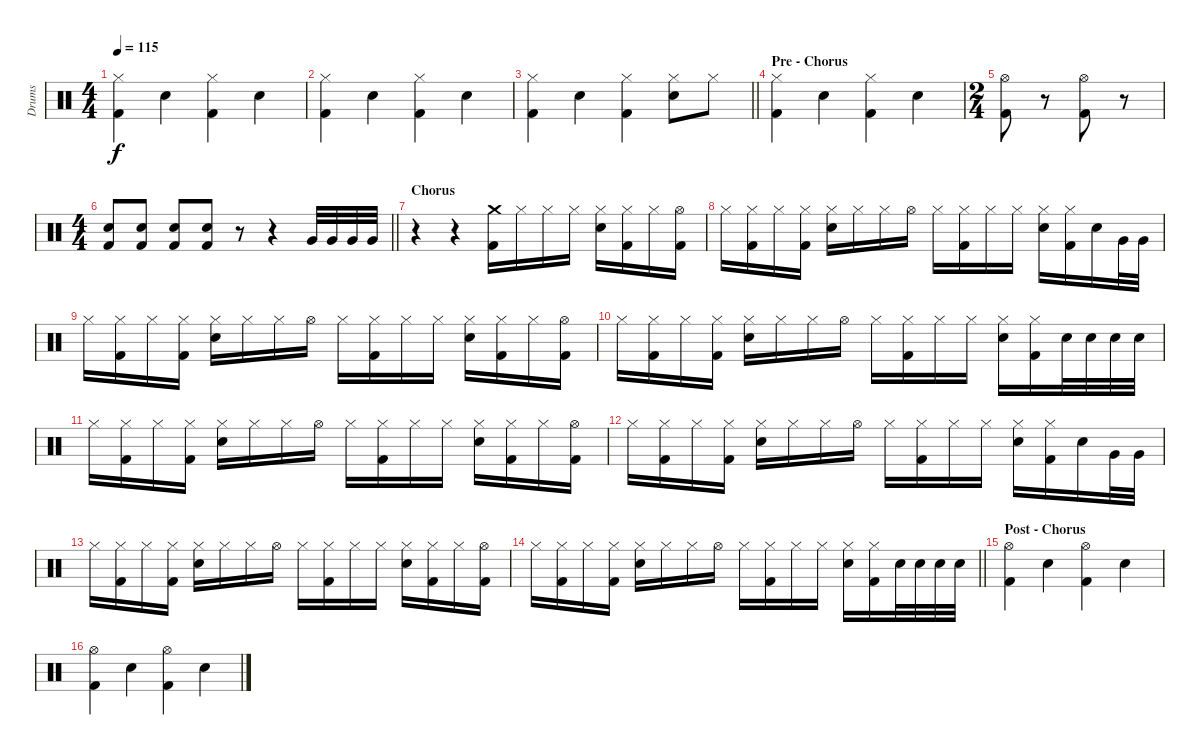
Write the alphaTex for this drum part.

\track ("Drums" "Drums") {instrument percussion}
\staff {score}
\articulation defaults
\ts (4 4)
\tempo 115
\clef neutral
\ks c
("Hi-Hat (closed)" "Kick (hit) 2").4{dy f} "Electric Snare (hit)".4 ("Hi-Hat (closed)" "Kick (hit) 2").4 "Electric Snare (hit)".4 |
("Hi-Hat (closed)" "Kick (hit) 2").4 "Electric Snare (hit)".4 ("Hi-Hat (closed)" "Kick (hit) 2").4 "Electric Snare (hit)".4 |
\barLineRight lightlight
("Hi-Hat (closed)" "Kick (hit) 2").4 "Electric Snare (hit)".4 ("Hi-Hat (closed)" "Kick (hit) 2").4 ("Hi-Hat (closed)" "Electric Snare (hit)").8 "Hi-Hat (closed)".8 |
\section ("" "Pre - Chorus")
("Hi-Hat (closed)" "Kick (hit) 2").4 "Electric Snare (hit)".4 ("Hi-Hat (closed)" "Kick (hit) 2").4 "Electric Snare (hit)".4 |
\ts (2 4)
("Hi-Hat (open)" "Kick (hit) 2").8 r.8 ("Hi-Hat (open)" "Kick (hit) 2").8 r.8 |
\ts (4 4)
\barLineRight lightlight
("Electric Snare (hit)" "Kick (hit) 2").8 ("Electric Snare (hit)" "Kick (hit) 2").8 ("Electric Snare (hit)" "Kick (hit) 2").8 ("Electric Snare (hit)" "Kick (hit) 2").8 r.8 r.4 "Very Low Tom (hit)".32 "Very Low Tom (hit)".32 "Very Low Tom (hit)".32 "Very Low Tom (hit)".32 |
\section ("" "Chorus")
r.4 r.4 ("Crash medium (hit)" "Kick (hit) 2").16 "Hi-Hat (closed)".16 "Hi-Hat (closed)".16 "Hi-Hat (closed)".16 ("Hi-Hat (closed)" "Electric Snare (hit)").16 ("Hi-Hat (closed)" "Kick (hit) 2").16 "Hi-Hat (closed)".16 ("Hi-Hat (open)" "Kick (hit) 2").16 |
"Hi-Hat (closed)".16 ("Hi-Hat (closed)" "Kick (hit) 2").16 "Hi-Hat (closed)".16 ("Hi-Hat (closed)" "Kick (hit) 2").16 ("Hi-Hat (closed)" "Electric Snare (hit)").16 "Hi-Hat (closed)".16 "Hi-Hat (closed)".16 "Hi-Hat (open)".16 "Hi-Hat (closed)".16 ("Hi-Hat (closed)" "Kick (hit) 2").16 "Hi-Hat (closed)".16 "Hi-Hat (closed)".16 ("Hi-Hat (closed)" "Electric Snare (hit)").16 ("Hi-Hat (closed)" "Kick (hit) 2").16 "Electric Snare (hit)".16 "Very Low Tom (hit)".32 "Very Low Tom (hit)".32 |
"Hi-Hat (closed)".16 ("Hi-Hat (closed)" "Kick (hit) 2").16 "Hi-Hat (closed)".16 ("Hi-Hat (closed)" "Kick (hit) 2").16 ("Hi-Hat (closed)" "Electric Snare (hit)").16 "Hi-Hat (closed)".16 "Hi-Hat (closed)".16 "Hi-Hat (open)".16 "Hi-Hat (closed)".16 ("Hi-Hat (closed)" "Kick (hit) 2").16 "Hi-Hat (closed)".16 "Hi-Hat (closed)".16 ("Hi-Hat (closed)" "Electric Snare (hit)").16 ("Hi-Hat (closed)" "Kick (hit) 2").16 "Hi-Hat (closed)".16 ("Hi-Hat (open)" "Kick (hit) 2").16 |
"Hi-Hat (closed)".16 ("Hi-Hat (closed)" "Kick (hit) 2").16 "Hi-Hat (closed)".16 ("Hi-Hat (closed)" "Kick (hit) 2").16 ("Hi-Hat (closed)" "Electric Snare (hit)").16 "Hi-Hat (closed)".16 "Hi-Hat (closed)".16 "Hi-Hat (open)".16 "Hi-Hat (closed)".16 ("Hi-Hat (closed)" "Kick (hit) 2").16 "Hi-Hat (closed)".16 "Hi-Hat (closed)".16 ("Hi-Hat (closed)" "Electric Snare (hit)").16 ("Hi-Hat (closed)" "Kick (hit) 2").16 "Electric Snare (hit)".32 "Electric Snare (hit)".32 "Electric Snare (hit)".32 "Electric Snare (hit)".32 |
"Hi-Hat (closed)".16 ("Hi-Hat (closed)" "Kick (hit) 2").16 "Hi-Hat (closed)".16 ("Hi-Hat (closed)" "Kick (hit) 2").16 ("Hi-Hat (closed)" "Electric Snare (hit)").16 "Hi-Hat (closed)".16 "Hi-Hat (closed)".16 "Hi-Hat (open)".16 "Hi-Hat (closed)".16 ("Hi-Hat (closed)" "Kick (hit) 2").16 "Hi-Hat (closed)".16 "Hi-Hat (closed)".16 ("Hi-Hat (closed)" "Electric Snare (hit)").16 ("Hi-Hat (closed)" "Kick (hit) 2").16 "Hi-Hat (closed)".16 ("Hi-Hat (open)" "Kick (hit) 2").16 |
"Hi-Hat (closed)".16 ("Hi-Hat (closed)" "Kick (hit) 2").16 "Hi-Hat (closed)".16 ("Hi-Hat (closed)" "Kick (hit) 2").16 ("Hi-Hat (closed)" "Electric Snare (hit)").16 "Hi-Hat (closed)".16 "Hi-Hat (closed)".16 "Hi-Hat (open)".16 "Hi-Hat (closed)".16 ("Hi-Hat (closed)" "Kick (hit) 2").16 "Hi-Hat (closed)".16 "Hi-Hat (closed)".16 ("Hi-Hat (closed)" "Electric Snare (hit)").16 ("Hi-Hat (closed)" "Kick (hit) 2").16 "Electric Snare (hit)".16 "Very Low Tom (hit)".32 "Very Low Tom (hit)".32 |
"Hi-Hat (closed)".16 ("Hi-Hat (closed)" "Kick (hit) 2").16 "Hi-Hat (closed)".16 ("Hi-Hat (closed)" "Kick (hit) 2").16 ("Hi-Hat (closed)" "Electric Snare (hit)").16 "Hi-Hat (closed)".16 "Hi-Hat (closed)".16 "Hi-Hat (open)".16 "Hi-Hat (closed)".16 ("Hi-Hat (closed)" "Kick (hit) 2").16 "Hi-Hat (closed)".16 "Hi-Hat (closed)".16 ("Hi-Hat (closed)" "Electric Snare (hit)").16 ("Hi-Hat (closed)" "Kick (hit) 2").16 "Hi-Hat (closed)".16 ("Hi-Hat (open)" "Kick (hit) 2").16 |
\barLineRight lightlight "Hi-Hat (closed)".16
("Hi-Hat (closed)" "Kick (hit) 2").16 "Hi-Hat (closed)".16 ("Hi-Hat (closed)" "Kick (hit) 2").16 ("Hi-Hat (closed)" "Electric Snare (hit)").16 "Hi-Hat (closed)".16 "Hi-Hat (closed)".16 "Hi-Hat (open)".16 "Hi-Hat (closed)".16 ("Hi-Hat (closed)" "Kick (hit) 2").16 "Hi-Hat (closed)".16 "Hi-Hat (closed)".16 ("Hi-Hat (closed)" "Electric Snare (hit)").16 ("Hi-Hat (closed)" "Kick (hit) 2").16 "Electric Snare (hit)".32 "Electric Snare (hit)".32 "Electric Snare (hit)".32 "Electric Snare (hit)".32 |
\section ("" "Post - Chorus")
("Hi-Hat (open)" "Kick (hit) 2").4 "Electric Snare (hit)".4 ("Hi-Hat (open)" "Kick (hit) 2").4 "Electric Snare (hit)".4 |
("Hi-Hat (open)" "Kick (hit) 2").4 "Electric Snare (hit)".4 ("Hi-Hat (open)" "Kick (hit) 2").4 "Electric Snare (hit)".4
